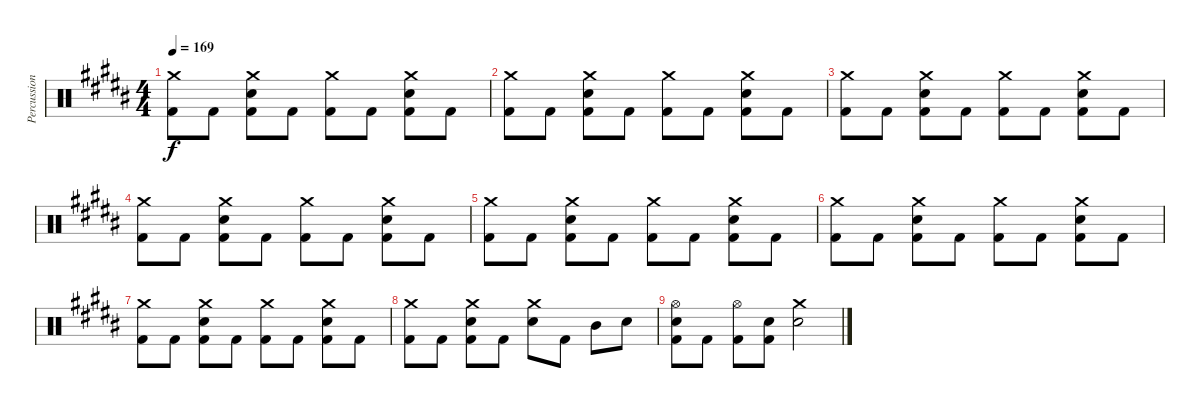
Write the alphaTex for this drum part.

\track ("Percussion" "Percussion") {instrument percussion}
\staff {score}
\articulation defaults
\ts (4 4)
\tempo 169
\clef neutral
\ks g#minor
("Crash medium (hit)" "Kick (hit) 2").8{dy f} "Kick (hit) 2".8 ("Crash medium (hit)" "Snare (hit) 2" "Kick (hit) 2").8 "Kick (hit) 2".8 ("Crash medium (hit)" "Kick (hit) 2").8 "Kick (hit) 2".8 ("Crash medium (hit)" "Snare (hit) 2" "Kick (hit) 2").8 "Kick (hit) 2".8 |
("Crash medium (hit)" "Kick (hit) 2").8 "Kick (hit) 2".8 ("Crash medium (hit)" "Snare (hit) 2" "Kick (hit) 2").8 "Kick (hit) 2".8 ("Crash medium (hit)" "Kick (hit) 2").8 "Kick (hit) 2".8 ("Crash medium (hit)" "Snare (hit) 2" "Kick (hit) 2").8 "Kick (hit) 2".8 |
("Crash medium (hit)" "Kick (hit) 2").8 "Kick (hit) 2".8 ("Crash medium (hit)" "Snare (hit) 2" "Kick (hit) 2").8 "Kick (hit) 2".8 ("Crash medium (hit)" "Kick (hit) 2").8 "Kick (hit) 2".8 ("Crash medium (hit)" "Snare (hit) 2" "Kick (hit) 2").8 "Kick (hit) 2".8 |
("Crash medium (hit)" "Kick (hit) 2").8 "Kick (hit) 2".8 ("Crash medium (hit)" "Snare (hit) 2" "Kick (hit) 2").8 "Kick (hit) 2".8 ("Crash medium (hit)" "Kick (hit) 2").8 "Kick (hit) 2".8 ("Crash medium (hit)" "Snare (hit) 2" "Kick (hit) 2").8 "Kick (hit) 2".8 |
("Crash medium (hit)" "Kick (hit) 2").8 "Kick (hit) 2".8 ("Crash medium (hit)" "Snare (hit) 2" "Kick (hit) 2").8 "Kick (hit) 2".8 ("Crash medium (hit)" "Kick (hit) 2").8 "Kick (hit) 2".8 ("Crash medium (hit)" "Snare (hit) 2" "Kick (hit) 2").8 "Kick (hit) 2".8 |
("Crash medium (hit)" "Kick (hit) 2").8 "Kick (hit) 2".8 ("Crash medium (hit)" "Snare (hit) 2" "Kick (hit) 2").8 "Kick (hit) 2".8 ("Crash medium (hit)" "Kick (hit) 2").8 "Kick (hit) 2".8 ("Crash medium (hit)" "Snare (hit) 2" "Kick (hit) 2").8 "Kick (hit) 2".8 |
("Crash medium (hit)" "Kick (hit) 2").8 "Kick (hit) 2".8 ("Crash medium (hit)" "Snare (hit) 2" "Kick (hit) 2").8 "Kick (hit) 2".8 ("Crash medium (hit)" "Kick (hit) 2").8 "Kick (hit) 2".8 ("Crash medium (hit)" "Snare (hit) 2" "Kick (hit) 2").8 "Kick (hit) 2".8 |
("Crash medium (hit)" "Kick (hit) 2").8 "Kick (hit) 2".8 ("Crash medium (hit)" "Snare (hit) 2" "Kick (hit) 2").8 "Kick (hit) 2".8 ("Crash medium (hit)" "Snare (hit) 2").8 "Kick (hit) 2".8 "Mid Tom (hit)".8 "Snare (hit) 2".8 |
("Hi-Hat (open)" "Snare (hit) 2" "Kick (hit) 2").8 "Kick (hit) 2".8 ("Hi-Hat (open)" "Kick (hit) 2").8 ("Snare (hit) 2" "Kick (hit) 2").8 ("Crash medium (hit)" "Snare (hit) 2").2
